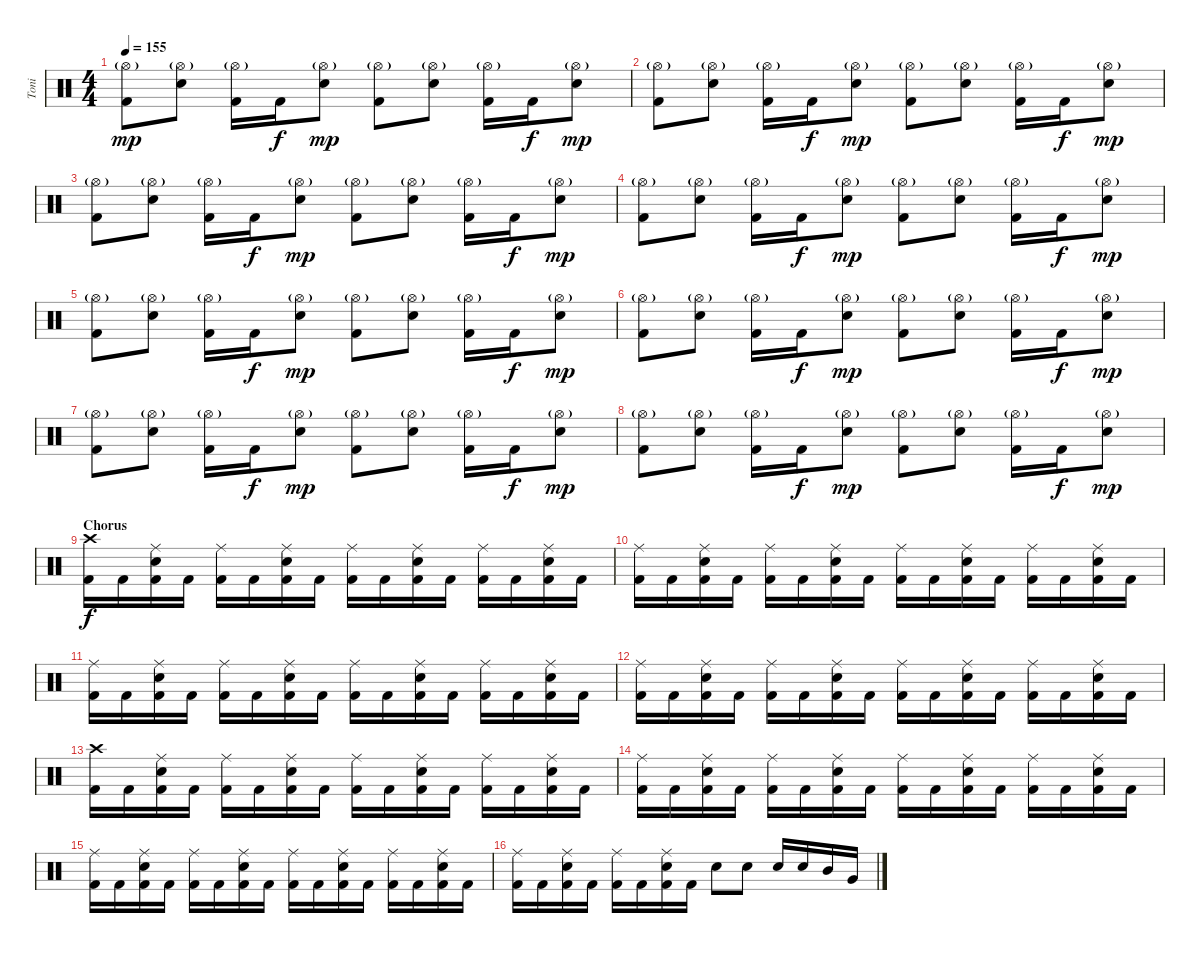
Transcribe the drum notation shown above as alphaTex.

\track ("Toni" "Toni") {instrument percussion}
\staff {score}
\articulation defaults
\ts (4 4)
\tempo 155
\clef neutral
\ks c
("Hi-Hat (open)"{g} "Kick (hit) 2").8{dy mp} ("Hi-Hat (open)"{g} "Electric Snare (hit)").8 ("Hi-Hat (open)"{g} "Kick (hit) 2").16 "Kick (hit) 2".16{dy f} ("Hi-Hat (open)"{g} "Electric Snare (hit)").8{dy mp} ("Hi-Hat (open)"{g} "Kick (hit) 2").8 ("Hi-Hat (open)"{g} "Electric Snare (hit)").8 ("Hi-Hat (open)"{g} "Kick (hit) 2").16 "Kick (hit) 2".16{dy f} ("Hi-Hat (open)"{g} "Electric Snare (hit)").8{dy mp} |
("Hi-Hat (open)"{g} "Kick (hit) 2").8 ("Hi-Hat (open)"{g} "Electric Snare (hit)").8 ("Hi-Hat (open)"{g} "Kick (hit) 2").16 "Kick (hit) 2".16{dy f} ("Hi-Hat (open)"{g} "Electric Snare (hit)").8{dy mp} ("Hi-Hat (open)"{g} "Kick (hit) 2").8 ("Hi-Hat (open)"{g} "Electric Snare (hit)").8 ("Hi-Hat (open)"{g} "Kick (hit) 2").16 "Kick (hit) 2".16{dy f} ("Hi-Hat (open)"{g} "Electric Snare (hit)").8{dy mp} |
("Hi-Hat (open)"{g} "Kick (hit) 2").8 ("Hi-Hat (open)"{g} "Electric Snare (hit)").8 ("Hi-Hat (open)"{g} "Kick (hit) 2").16 "Kick (hit) 2".16{dy f} ("Hi-Hat (open)"{g} "Electric Snare (hit)").8{dy mp} ("Hi-Hat (open)"{g} "Kick (hit) 2").8 ("Hi-Hat (open)"{g} "Electric Snare (hit)").8 ("Hi-Hat (open)"{g} "Kick (hit) 2").16 "Kick (hit) 2".16{dy f} ("Hi-Hat (open)"{g} "Electric Snare (hit)").8{dy mp} |
("Hi-Hat (open)"{g} "Kick (hit) 2").8 ("Hi-Hat (open)"{g} "Electric Snare (hit)").8 ("Hi-Hat (open)"{g} "Kick (hit) 2").16 "Kick (hit) 2".16{dy f} ("Hi-Hat (open)"{g} "Electric Snare (hit)").8{dy mp} ("Hi-Hat (open)"{g} "Kick (hit) 2").8 ("Hi-Hat (open)"{g} "Electric Snare (hit)").8 ("Hi-Hat (open)"{g} "Kick (hit) 2").16 "Kick (hit) 2".16{dy f} ("Hi-Hat (open)"{g} "Electric Snare (hit)").8{dy mp} |
("Hi-Hat (open)"{g} "Kick (hit) 2").8 ("Hi-Hat (open)"{g} "Electric Snare (hit)").8 ("Hi-Hat (open)"{g} "Kick (hit) 2").16 "Kick (hit) 2".16{dy f} ("Hi-Hat (open)"{g} "Electric Snare (hit)").8{dy mp} ("Hi-Hat (open)"{g} "Kick (hit) 2").8 ("Hi-Hat (open)"{g} "Electric Snare (hit)").8 ("Hi-Hat (open)"{g} "Kick (hit) 2").16 "Kick (hit) 2".16{dy f} ("Hi-Hat (open)"{g} "Electric Snare (hit)").8{dy mp} |
("Hi-Hat (open)"{g} "Kick (hit) 2").8 ("Hi-Hat (open)"{g} "Electric Snare (hit)").8 ("Hi-Hat (open)"{g} "Kick (hit) 2").16 "Kick (hit) 2".16{dy f} ("Hi-Hat (open)"{g} "Electric Snare (hit)").8{dy mp} ("Hi-Hat (open)"{g} "Kick (hit) 2").8 ("Hi-Hat (open)"{g} "Electric Snare (hit)").8 ("Hi-Hat (open)"{g} "Kick (hit) 2").16 "Kick (hit) 2".16{dy f} ("Hi-Hat (open)"{g} "Electric Snare (hit)").8{dy mp} |
("Hi-Hat (open)"{g} "Kick (hit) 2").8 ("Hi-Hat (open)"{g} "Electric Snare (hit)").8 ("Hi-Hat (open)"{g} "Kick (hit) 2").16 "Kick (hit) 2".16{dy f} ("Hi-Hat (open)"{g} "Electric Snare (hit)").8{dy mp} ("Hi-Hat (open)"{g} "Kick (hit) 2").8 ("Hi-Hat (open)"{g} "Electric Snare (hit)").8 ("Hi-Hat (open)"{g} "Kick (hit) 2").16 "Kick (hit) 2".16{dy f} ("Hi-Hat (open)"{g} "Electric Snare (hit)").8{dy mp} |
("Hi-Hat (open)"{g} "Kick (hit) 2").8 ("Hi-Hat (open)"{g} "Electric Snare (hit)").8 ("Hi-Hat (open)"{g} "Kick (hit) 2").16 "Kick (hit) 2".16{dy f} ("Hi-Hat (open)"{g} "Electric Snare (hit)").8{dy mp} ("Hi-Hat (open)"{g} "Kick (hit) 2").8 ("Hi-Hat (open)"{g} "Electric Snare (hit)").8 ("Hi-Hat (open)"{g} "Kick (hit) 2").16 "Kick (hit) 2".16{dy f} ("Hi-Hat (open)"{g} "Electric Snare (hit)").8{dy mp} |
\section ("" "Chorus")
("Crash high (hit)" "Kick (hit) 2").16{dy f} "Kick (hit) 2".16 ("Ride (middle)" "Electric Snare (hit)" "Kick (hit) 2").16 "Kick (hit) 2".16 ("Ride (middle)" "Kick (hit) 2").16 "Kick (hit) 2".16 ("Ride (middle)" "Electric Snare (hit)" "Kick (hit) 2").16 "Kick (hit) 2".16 ("Ride (middle)" "Kick (hit) 2").16 "Kick (hit) 2".16 ("Ride (middle)" "Electric Snare (hit)" "Kick (hit) 2").16 "Kick (hit) 2".16 ("Ride (middle)" "Kick (hit) 2").16 "Kick (hit) 2".16 ("Ride (middle)" "Electric Snare (hit)" "Kick (hit) 2").16 "Kick (hit) 2".16 |
("Ride (middle)" "Kick (hit) 2").16 "Kick (hit) 2".16 ("Ride (middle)" "Electric Snare (hit)" "Kick (hit) 2").16 "Kick (hit) 2".16 ("Ride (middle)" "Kick (hit) 2").16 "Kick (hit) 2".16 ("Ride (middle)" "Electric Snare (hit)" "Kick (hit) 2").16 "Kick (hit) 2".16 ("Ride (middle)" "Kick (hit) 2").16 "Kick (hit) 2".16 ("Ride (middle)" "Electric Snare (hit)" "Kick (hit) 2").16 "Kick (hit) 2".16 ("Ride (middle)" "Kick (hit) 2").16 "Kick (hit) 2".16 ("Ride (middle)" "Electric Snare (hit)" "Kick (hit) 2").16 "Kick (hit) 2".16 |
("Ride (middle)" "Kick (hit) 2").16 "Kick (hit) 2".16 ("Ride (middle)" "Electric Snare (hit)" "Kick (hit) 2").16 "Kick (hit) 2".16 ("Ride (middle)" "Kick (hit) 2").16 "Kick (hit) 2".16 ("Ride (middle)" "Electric Snare (hit)" "Kick (hit) 2").16 "Kick (hit) 2".16 ("Ride (middle)" "Kick (hit) 2").16 "Kick (hit) 2".16 ("Ride (middle)" "Electric Snare (hit)" "Kick (hit) 2").16 "Kick (hit) 2".16 ("Ride (middle)" "Kick (hit) 2").16 "Kick (hit) 2".16 ("Ride (middle)" "Electric Snare (hit)" "Kick (hit) 2").16 "Kick (hit) 2".16 |
("Ride (middle)" "Kick (hit) 2").16 "Kick (hit) 2".16 ("Ride (middle)" "Electric Snare (hit)" "Kick (hit) 2").16 "Kick (hit) 2".16 ("Ride (middle)" "Kick (hit) 2").16 "Kick (hit) 2".16 ("Ride (middle)" "Electric Snare (hit)" "Kick (hit) 2").16 "Kick (hit) 2".16 ("Ride (middle)" "Kick (hit) 2").16 "Kick (hit) 2".16 ("Ride (middle)" "Electric Snare (hit)" "Kick (hit) 2").16 "Kick (hit) 2".16 ("Ride (middle)" "Kick (hit) 2").16 "Kick (hit) 2".16 ("Ride (middle)" "Electric Snare (hit)" "Kick (hit) 2").16 "Kick (hit) 2".16 |
("Crash high (hit)" "Kick (hit) 2").16 "Kick (hit) 2".16 ("Ride (middle)" "Electric Snare (hit)" "Kick (hit) 2").16 "Kick (hit) 2".16 ("Ride (middle)" "Kick (hit) 2").16 "Kick (hit) 2".16 ("Ride (middle)" "Electric Snare (hit)" "Kick (hit) 2").16 "Kick (hit) 2".16 ("Ride (middle)" "Kick (hit) 2").16 "Kick (hit) 2".16 ("Ride (middle)" "Electric Snare (hit)" "Kick (hit) 2").16 "Kick (hit) 2".16 ("Ride (middle)" "Kick (hit) 2").16 "Kick (hit) 2".16 ("Ride (middle)" "Electric Snare (hit)" "Kick (hit) 2").16 "Kick (hit) 2".16 |
("Ride (middle)" "Kick (hit) 2").16 "Kick (hit) 2".16 ("Ride (middle)" "Electric Snare (hit)" "Kick (hit) 2").16 "Kick (hit) 2".16 ("Ride (middle)" "Kick (hit) 2").16 "Kick (hit) 2".16 ("Ride (middle)" "Electric Snare (hit)" "Kick (hit) 2").16 "Kick (hit) 2".16 ("Ride (middle)" "Kick (hit) 2").16 "Kick (hit) 2".16 ("Ride (middle)" "Electric Snare (hit)" "Kick (hit) 2").16 "Kick (hit) 2".16 ("Ride (middle)" "Kick (hit) 2").16 "Kick (hit) 2".16 ("Ride (middle)" "Electric Snare (hit)" "Kick (hit) 2").16 "Kick (hit) 2".16 |
("Ride (middle)" "Kick (hit) 2").16 "Kick (hit) 2".16 ("Ride (middle)" "Electric Snare (hit)" "Kick (hit) 2").16 "Kick (hit) 2".16 ("Ride (middle)" "Kick (hit) 2").16 "Kick (hit) 2".16 ("Ride (middle)" "Electric Snare (hit)" "Kick (hit) 2").16 "Kick (hit) 2".16 ("Ride (middle)" "Kick (hit) 2").16 "Kick (hit) 2".16 ("Ride (middle)" "Electric Snare (hit)" "Kick (hit) 2").16 "Kick (hit) 2".16 ("Ride (middle)" "Kick (hit) 2").16 "Kick (hit) 2".16 ("Ride (middle)" "Electric Snare (hit)" "Kick (hit) 2").16 "Kick (hit) 2".16 |
("Ride (middle)" "Kick (hit) 2").16 "Kick (hit) 2".16 ("Ride (middle)" "Electric Snare (hit)" "Kick (hit) 2").16 "Kick (hit) 2".16 ("Ride (middle)" "Kick (hit) 2").16 "Kick (hit) 2".16 ("Ride (middle)" "Electric Snare (hit)" "Kick (hit) 2").16 "Kick (hit) 2".16 "Electric Snare (hit)".8 "Electric Snare (hit)".8 "Electric Snare (hit)".16 "Electric Snare (hit)".16 "Mid Tom (hit)".16 "Very Low Tom (hit)".16
